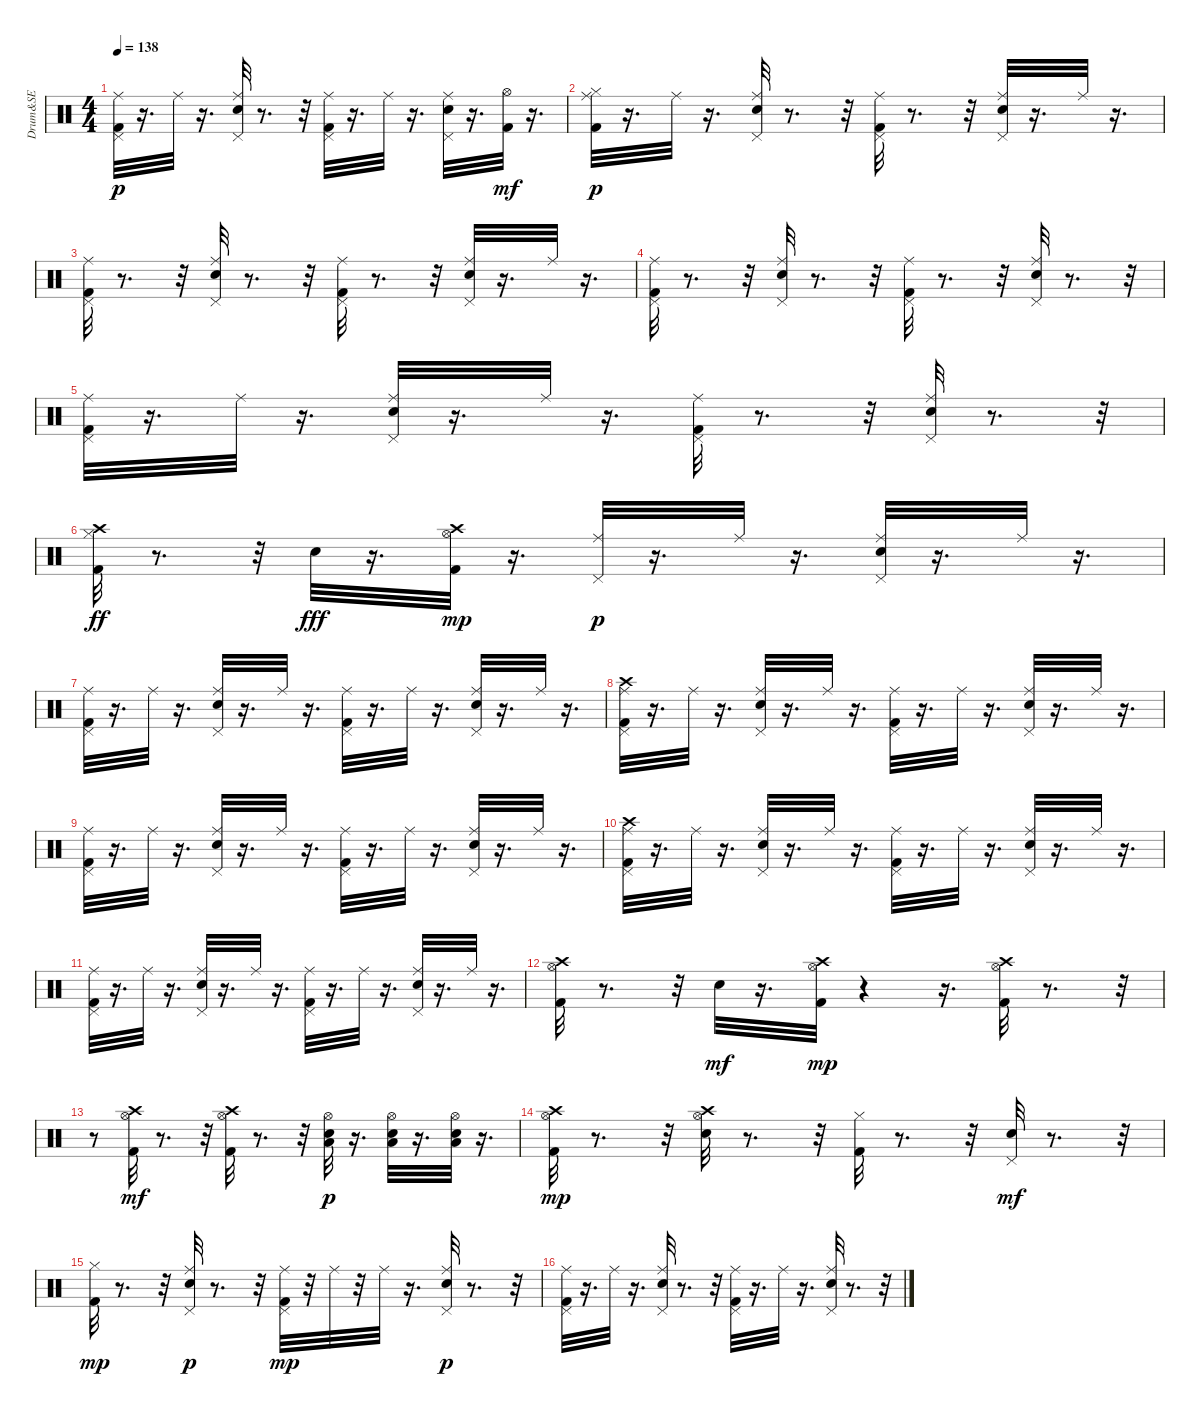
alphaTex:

\track ("Drum&SE" "Drum&SE") {instrument percussion}
\staff {score}
\articulation defaults
\ts (4 4)
\tempo 138
\clef neutral
\ks c
("Kick (hit) 2" "Pedal Hi-Hat (hit)" "Ride (middle)").32{dy p} r.16{d} "Ride (middle)".32 r.16{d} ("Snare (hit) 2" "Pedal Hi-Hat (hit)" "Ride (middle)").32 r.8{d} r.32 ("Kick (hit) 2" "Pedal Hi-Hat (hit)" "Ride (middle)").32 r.16{d} "Ride (middle)".32 r.16{d} ("Snare (hit) 2" "Pedal Hi-Hat (hit)" "Ride (middle)").32 r.16{d} ("Kick (hit) 2" "Hi-Hat (open)").32{dy mf} r.16{d} |
("Kick (hit) 2" "Hi-Hat (closed)" "Ride (middle)").32{dy p} r.16{d} "Ride (middle)".32 r.16{d} ("Snare (hit) 2" "Pedal Hi-Hat (hit)" "Ride (middle)").32 r.8{d} r.32 ("Kick (hit) 2" "Pedal Hi-Hat (hit)" "Ride (middle)").32 r.8{d} r.32 ("Snare (hit) 2" "Pedal Hi-Hat (hit)" "Ride (middle)").32 r.16{d} "Ride (middle)".32 r.16{d} |
("Kick (hit) 2" "Pedal Hi-Hat (hit)" "Ride (middle)").32 r.8{d} r.32 ("Snare (hit) 2" "Pedal Hi-Hat (hit)" "Ride (middle)").32 r.8{d} r.32 ("Kick (hit) 2" "Pedal Hi-Hat (hit)" "Ride (middle)").32 r.8{d} r.32 ("Snare (hit) 2" "Pedal Hi-Hat (hit)" "Ride (middle)").32 r.16{d} "Ride (middle)".32 r.16{d} |
("Kick (hit) 2" "Pedal Hi-Hat (hit)" "Ride (middle)").32 r.8{d} r.32 ("Snare (hit) 2" "Pedal Hi-Hat (hit)" "Ride (middle)").32 r.8{d} r.32 ("Kick (hit) 2" "Pedal Hi-Hat (hit)" "Ride (middle)").32 r.8{d} r.32 ("Snare (hit) 2" "Pedal Hi-Hat (hit)" "Ride (middle)").32 r.8{d} r.32 |
("Kick (hit) 2" "Pedal Hi-Hat (hit)" "Ride (middle)").32 r.16{d} "Ride (middle)".32 r.16{d} ("Snare (hit) 2" "Pedal Hi-Hat (hit)" "Ride (middle)").32 r.16{d} "Ride (middle)".32 r.16{d} ("Kick (hit) 2" "Pedal Hi-Hat (hit)" "Ride (middle)").32 r.8{d} r.32 ("Snare (hit) 2" "Pedal Hi-Hat (hit)" "Ride (middle)").32 r.8{d} r.32 |
("Kick (hit) 2" "Hi-Hat (closed)" "Crash high (hit)").32{dy ff} r.8{d} r.32 "Snare (hit) 2".32{dy fff} r.16{d} ("Kick (hit) 2" "Hi-Hat (open)" "Crash high (hit)").32{dy mp} r.16{d} ("Pedal Hi-Hat (hit)" "Ride (middle)").32{dy p} r.16{d} "Ride (middle)".32 r.16{d} ("Pedal Hi-Hat (hit)" "Snare (hit) 2" "Ride (middle)").32 r.16{d} "Ride (middle)".32 r.16{d} |
("Kick (hit) 2" "Pedal Hi-Hat (hit)" "Ride (middle)").32 r.16{d} "Ride (middle)".32 r.16{d} ("Snare (hit) 2" "Pedal Hi-Hat (hit)" "Ride (middle)").32 r.16{d} "Ride (middle)".32 r.16{d} ("Kick (hit) 2" "Pedal Hi-Hat (hit)" "Ride (middle)").32 r.16{d} "Ride (middle)".32 r.16{d} ("Snare (hit) 2" "Pedal Hi-Hat (hit)" "Ride (middle)").32 r.16{d} "Ride (middle)".32 r.16{d} |
("Kick (hit) 2" "Pedal Hi-Hat (hit)" "Crash high (hit)" "Ride (middle)").32 r.16{d} "Ride (middle)".32 r.16{d} ("Snare (hit) 2" "Pedal Hi-Hat (hit)" "Ride (middle)").32 r.16{d} "Ride (middle)".32 r.16{d} ("Kick (hit) 2" "Pedal Hi-Hat (hit)" "Ride (middle)").32 r.16{d} "Ride (middle)".32 r.16{d} ("Snare (hit) 2" "Pedal Hi-Hat (hit)" "Ride (middle)").32 r.16{d} "Ride (middle)".32 r.16{d} |
("Kick (hit) 2" "Pedal Hi-Hat (hit)" "Ride (middle)").32 r.16{d} "Ride (middle)".32 r.16{d} ("Snare (hit) 2" "Pedal Hi-Hat (hit)" "Ride (middle)").32 r.16{d} "Ride (middle)".32 r.16{d} ("Kick (hit) 2" "Pedal Hi-Hat (hit)" "Ride (middle)").32 r.16{d} "Ride (middle)".32 r.16{d} ("Snare (hit) 2" "Pedal Hi-Hat (hit)" "Ride (middle)").32 r.16{d} "Ride (middle)".32 r.16{d} |
("Kick (hit) 2" "Pedal Hi-Hat (hit)" "Crash high (hit)" "Ride (middle)").32 r.16{d} "Ride (middle)".32 r.16{d} ("Snare (hit) 2" "Pedal Hi-Hat (hit)" "Ride (middle)").32 r.16{d} "Ride (middle)".32 r.16{d} ("Kick (hit) 2" "Pedal Hi-Hat (hit)" "Ride (middle)").32 r.16{d} "Ride (middle)".32 r.16{d} ("Snare (hit) 2" "Pedal Hi-Hat (hit)" "Ride (middle)").32 r.16{d} "Ride (middle)".32 r.16{d} |
("Kick (hit) 2" "Pedal Hi-Hat (hit)" "Ride (middle)").32 r.16{d} "Ride (middle)".32 r.16{d} ("Snare (hit) 2" "Pedal Hi-Hat (hit)" "Ride (middle)").32 r.16{d} "Ride (middle)".32 r.16{d} ("Kick (hit) 2" "Pedal Hi-Hat (hit)" "Ride (middle)").32 r.16{d} "Ride (middle)".32 r.16{d} ("Snare (hit) 2" "Pedal Hi-Hat (hit)" "Ride (middle)").32 r.16{d} "Ride (middle)".32 r.16{d} |
("Kick (hit) 2" "Hi-Hat (open)" "Crash high (hit)").32 r.8{d} r.32 "Snare (hit) 2".32{dy mf} r.16{d} ("Kick (hit) 2" "Hi-Hat (open)" "Crash high (hit)").32{dy mp} r.4 r.16{d} ("Kick (hit) 2" "Hi-Hat (open)" "Crash high (hit)").32 r.8{d} r.32 |
r.8 ("Kick (hit) 2" "Hi-Hat (open)" "Crash high (hit)").32{dy mf} r.8{d} r.32 ("Kick (hit) 2" "Hi-Hat (open)" "Crash high (hit)").32 r.8{d} r.32 ("Snare (hit) 2" "Low Floor Tom (hit)" "Hi-Hat (open)").32{dy p} r.16{d} ("Snare (hit) 2" "Low Tom (hit)" "Hi-Hat (open)").32 r.16{d} ("Snare (hit) 2" "Low Floor Tom (hit)" "Hi-Hat (open)").32 r.16{d} |
("Kick (hit) 2" "Hi-Hat (open)" "Crash high (hit)").32{dy mp} r.8{d} r.32 ("Hi-Hat (open)" "Snare (hit) 2" "Crash high (hit)").32 r.8{d} r.32 ("Kick (hit) 2" "Hi-Hat (closed)").32 r.8{d} r.32 ("Snare (hit) 2" "Pedal Hi-Hat (hit)").32{dy mf} r.8{d} r.32 |
("Kick (hit) 2" "Hi-Hat (closed)").32{dy mp} r.8{d} r.32 ("Snare (hit) 2" "Pedal Hi-Hat (hit)" "Ride (middle)").32{dy p} r.8{d} r.32 ("Kick (hit) 2" "Pedal Hi-Hat (hit)" "Ride (middle)").32{dy mp} r.32 "Ride (middle)".32 r.32 "Ride (middle)".32 r.16{d} ("Snare (hit) 2" "Pedal Hi-Hat (hit)" "Ride (middle)").32{dy p} r.8{d} r.32 |
("Kick (hit) 2" "Pedal Hi-Hat (hit)" "Ride (middle)").32 r.16{d} "Ride (middle)".32 r.16{d} ("Snare (hit) 2" "Pedal Hi-Hat (hit)" "Ride (middle)").32 r.8{d} r.32 ("Kick (hit) 2" "Pedal Hi-Hat (hit)" "Ride (middle)").32 r.16{d} "Ride (middle)".32 r.16{d} ("Snare (hit) 2" "Pedal Hi-Hat (hit)" "Ride (middle)").32 r.8{d} r.32
